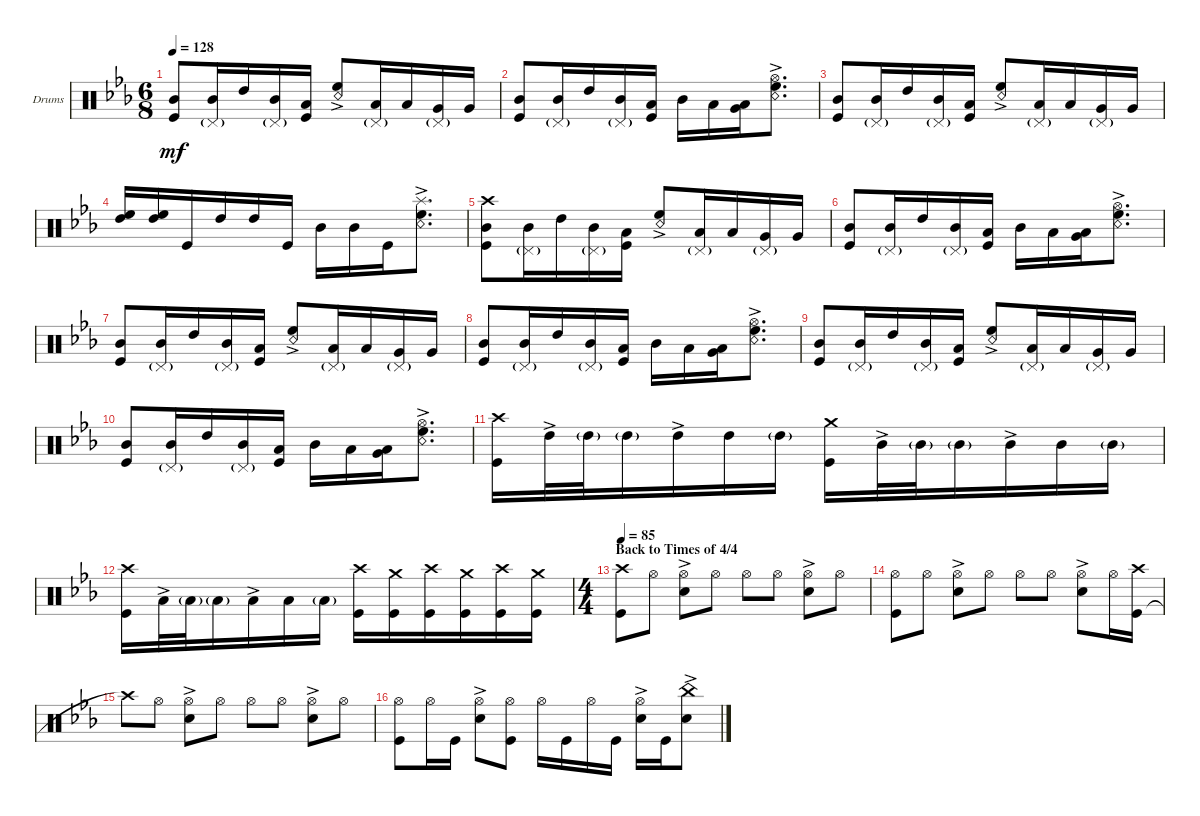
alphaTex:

\bracketExtendMode groupsimilarinstruments
\firstSystemTrackNameOrientation horizontal
\otherSystemsTrackNameOrientation horizontal
\track ("Drumkit" "Drums") {instrument percussion}
\staff {score}
\articulation defaults
\ts (6 8)
\tempo 128
\clef neutral
\ks cminor
("Kick (hit)" "Mid Tom (hit)").8{dy mf} ("Mid Tom (hit)" "Pedal Hi-Hat (hit)"{g}).16 "High Tom (hit)".16 ("Mid Tom (hit)" "Pedal Hi-Hat (hit)"{g}).16 ("Low Tom (hit)" "Kick (hit)").16 ("High Floor Tom (hit)"{ac} "Snare (rim shot)").8 ("Low Tom (hit)" "Pedal Hi-Hat (hit)"{g}).16 "Low Tom (hit)".16 ("Very Low Tom (hit)" "Pedal Hi-Hat (hit)"{g}).16 "Very Low Tom (hit)".16 |
("Kick (hit)" "Mid Tom (hit)").8 ("Mid Tom (hit)" "Pedal Hi-Hat (hit)"{g}).16 "High Tom (hit)".16 ("Mid Tom (hit)" "Pedal Hi-Hat (hit)"{g}).16 ("Low Tom (hit)" "Kick (hit)").16 "Mid Tom (hit)".16 "Low Tom (hit)".16 ("Very Low Tom (hit)" "Low Tom (hit)").16 ("High Floor Tom (hit)"{ac} "Hi-Hat (open)" "Snare (rim shot)").8{d} |
("Kick (hit)" "Mid Tom (hit)").8 ("Mid Tom (hit)" "Pedal Hi-Hat (hit)"{g}).16 "High Tom (hit)".16 ("Mid Tom (hit)" "Pedal Hi-Hat (hit)"{g}).16 ("Low Tom (hit)" "Kick (hit)").16 ("High Floor Tom (hit)"{ac} "Snare (rim shot)").8 ("Low Tom (hit)" "Pedal Hi-Hat (hit)"{g}).16 "Low Tom (hit)".16 ("Very Low Tom (hit)" "Pedal Hi-Hat (hit)"{g}).16 "Very Low Tom (hit)".16 |
("High Tom (hit)" "High Floor Tom (hit)").16 ("High Floor Tom (hit)" "High Tom (hit)").16 "Kick (hit)".16 "High Tom (hit)".16 "High Tom (hit)".16 "Kick (hit)".16 "Mid Tom (hit)".16 "Mid Tom (hit)".16 "Kick (hit)".16 ("High Floor Tom (hit)"{ac} "Splash (hit)" "Snare (rim shot)").8{d} |
("Kick (hit)" "Mid Tom (hit)" "Crash high (hit)").8 ("Mid Tom (hit)" "Pedal Hi-Hat (hit)"{g}).16 "High Tom (hit)".16 ("Mid Tom (hit)" "Pedal Hi-Hat (hit)"{g}).16 ("Low Tom (hit)" "Kick (hit)").16 ("High Floor Tom (hit)"{ac} "Snare (rim shot)").8 ("Low Tom (hit)" "Pedal Hi-Hat (hit)"{g}).16 "Low Tom (hit)".16 ("Very Low Tom (hit)" "Pedal Hi-Hat (hit)"{g}).16 "Very Low Tom (hit)".16 |
("Kick (hit)" "Mid Tom (hit)").8 ("Mid Tom (hit)" "Pedal Hi-Hat (hit)"{g}).16 "High Tom (hit)".16 ("Mid Tom (hit)" "Pedal Hi-Hat (hit)"{g}).16 ("Low Tom (hit)" "Kick (hit)").16 "Mid Tom (hit)".16 "Low Tom (hit)".16 ("Very Low Tom (hit)" "Low Tom (hit)").16 ("High Floor Tom (hit)"{ac} "Hi-Hat (open)" "Snare (rim shot)").8{d} |
("Kick (hit)" "Mid Tom (hit)").8 ("Mid Tom (hit)" "Pedal Hi-Hat (hit)"{g}).16 "High Tom (hit)".16 ("Mid Tom (hit)" "Pedal Hi-Hat (hit)"{g}).16 ("Low Tom (hit)" "Kick (hit)").16 ("High Floor Tom (hit)"{ac} "Snare (rim shot)").8 ("Low Tom (hit)" "Pedal Hi-Hat (hit)"{g}).16 "Low Tom (hit)".16 ("Very Low Tom (hit)" "Pedal Hi-Hat (hit)"{g}).16 "Very Low Tom (hit)".16 |
("Kick (hit)" "Mid Tom (hit)").8 ("Mid Tom (hit)" "Pedal Hi-Hat (hit)"{g}).16 "High Tom (hit)".16 ("Mid Tom (hit)" "Pedal Hi-Hat (hit)"{g}).16 ("Low Tom (hit)" "Kick (hit)").16 "Mid Tom (hit)".16 "Low Tom (hit)".16 ("Very Low Tom (hit)" "Low Tom (hit)").16 ("High Floor Tom (hit)"{ac} "Hi-Hat (open)" "Snare (rim shot)").8{d} |
("Kick (hit)" "Mid Tom (hit)").8 ("Mid Tom (hit)" "Pedal Hi-Hat (hit)"{g}).16 "High Tom (hit)".16 ("Mid Tom (hit)" "Pedal Hi-Hat (hit)"{g}).16 ("Low Tom (hit)" "Kick (hit)").16 ("High Floor Tom (hit)"{ac} "Snare (rim shot)").8 ("Low Tom (hit)" "Pedal Hi-Hat (hit)"{g}).16 "Low Tom (hit)".16 ("Very Low Tom (hit)" "Pedal Hi-Hat (hit)"{g}).16 "Very Low Tom (hit)".16 |
("Kick (hit)" "Mid Tom (hit)").8 ("Mid Tom (hit)" "Pedal Hi-Hat (hit)"{g}).16 "High Tom (hit)".16 ("Mid Tom (hit)" "Pedal Hi-Hat (hit)"{g}).16 ("Low Tom (hit)" "Kick (hit)").16 "Mid Tom (hit)".16 "Low Tom (hit)".16 ("Very Low Tom (hit)" "Low Tom (hit)").16 ("High Floor Tom (hit)"{ac} "Hi-Hat (open)" "Snare (rim shot)").8{d} |
("Kick (hit)" "Crash high (hit)").16 "High Tom (hit)"{ac}.32 "High Tom (hit)"{g}.32 "High Tom (hit)"{g}.16 "High Tom (hit)"{ac}.16 "High Tom (hit)".16 "High Tom (hit)"{g}.16 ("Kick (hit)" "Crash medium (hit)").16 "Mid Tom (hit)"{ac}.32 "Mid Tom (hit)"{g}.32 "Mid Tom (hit)"{g}.16 "Mid Tom (hit)"{ac}.16 "Mid Tom (hit)".16 "Mid Tom (hit)"{g}.16 |
("Kick (hit)" "Crash high (hit)").16 "Low Tom (hit)"{ac}.32 "Low Tom (hit)"{g}.32 "Low Tom (hit)"{g}.16 "Low Tom (hit)"{ac}.16 "Low Tom (hit)".16 "Low Tom (hit)"{g}.16 ("Kick (hit)" "Crash high (hit)").16 ("Kick (hit)" "Crash medium (hit)").16 ("Kick (hit)" "Crash high (hit)").16 ("Kick (hit)" "Crash medium (hit)").16 ("Kick (hit)" "Crash high (hit)").16 ("Kick (hit)" "Crash medium (hit)").16 |
\ts (4 4)
\section ("" "Back to Times of 4/4")
\tempo 85
("Kick (hit)" "Crash high (hit)").8 "Hi-Hat (open)".8 ("Hi-Hat (open)" "Snare (hit) 2"{ac}).8 "Hi-Hat (open)".8 "Hi-Hat (open)".8 "Hi-Hat (open)".8 ("Hi-Hat (open)" "Snare (hit) 2"{ac}).8 "Hi-Hat (open)".8 |
("Kick (hit)" "Hi-Hat (open)").8 "Hi-Hat (open)".8 ("Hi-Hat (open)" "Snare (hit) 2"{ac}).8 "Hi-Hat (open)".8 "Hi-Hat (open)".8 "Hi-Hat (open)".8 ("Hi-Hat (open)" "Snare (hit) 2"{ac}).8 "Hi-Hat (open)".16 ("Kick (hit)" "Crash high (hit)").16 |
"Crash high (hit)"{t}.8 "Hi-Hat (open)".8 ("Hi-Hat (open)" "Snare (hit) 2"{ac}).8 "Hi-Hat (open)".8 "Hi-Hat (open)".8 "Hi-Hat (open)".8 ("Hi-Hat (open)" "Snare (hit) 2"{ac}).8 "Hi-Hat (open)".8 |
("Kick (hit)" "Hi-Hat (open)").8 "Hi-Hat (open)".16 "Kick (hit)".16 ("Snare (hit) 2"{ac} "Hi-Hat (open)").8 ("Kick (hit)" "Hi-Hat (open)").8 "Hi-Hat (open)".16 "Kick (hit)".16 "Hi-Hat (open)".16 "Kick (hit)".16 ("Snare (hit) 2"{ac} "Hi-Hat (open)").16 "Kick (hit)".16 ("Snare (hit) 2"{ac} "China (hit)").8
